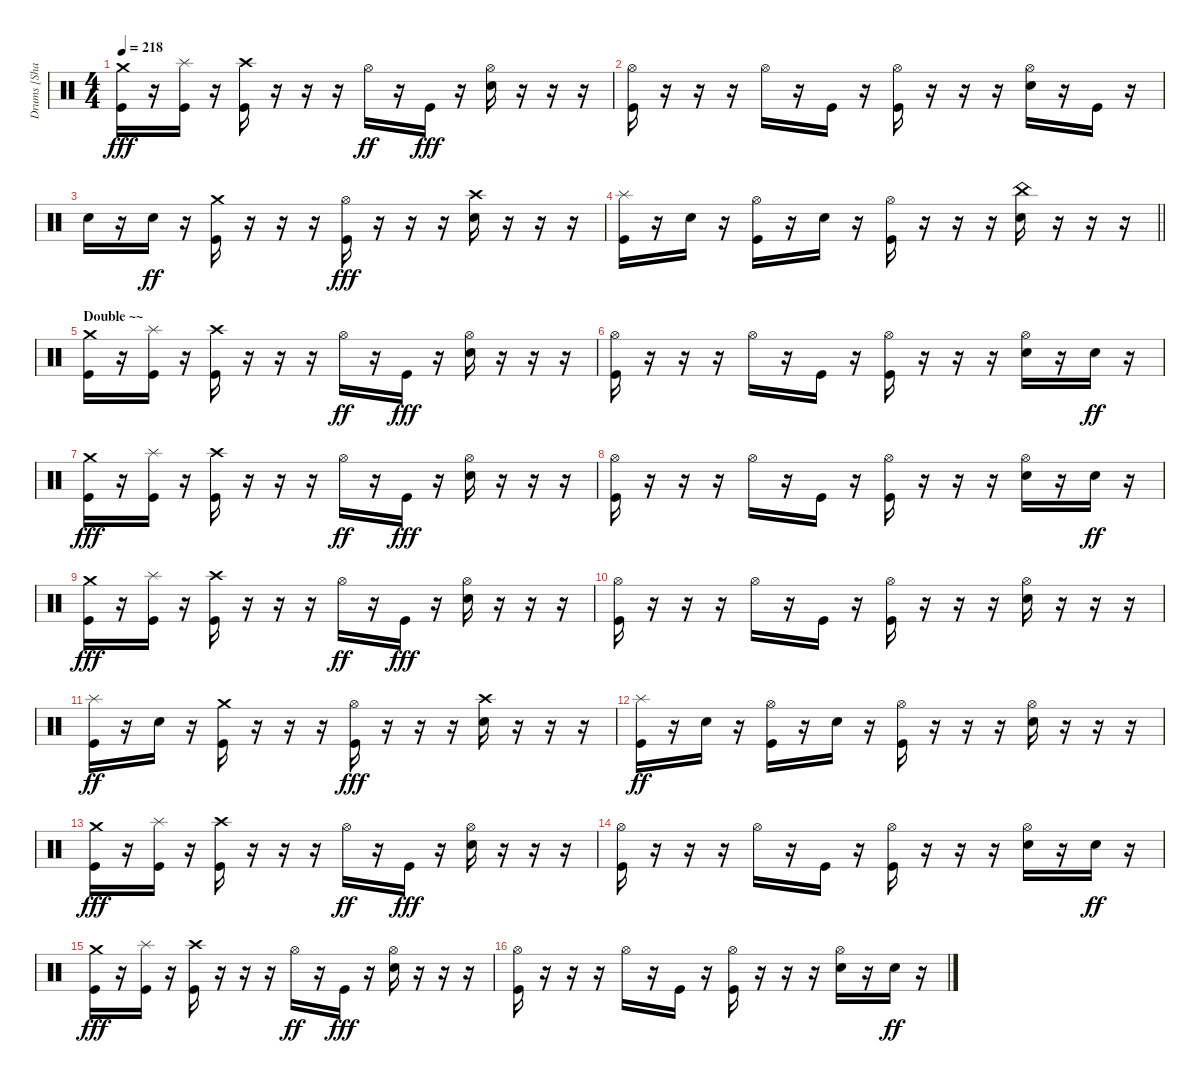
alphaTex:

\track ("Drums [Shannon Larkin]" "Drums [Sha") {instrument percussion}
\staff {score}
\articulation defaults
\ts (4 4)
\tempo 218
\clef neutral
\ks c
("Crash medium (hit)" "Kick (hit)").16{dy fff} r.16 ("Splash (hit)" "Kick (hit)").16 r.16 ("Crash high (hit)" "Kick (hit)").16 r.16 r.16 r.16 "Hi-Hat (open)".16{dy ff} r.16 "Kick (hit)".16{dy fff} r.16 ("Hi-Hat (open)" "Electric Snare (hit)").16 r.16 r.16 r.16 |
("Hi-Hat (open)" "Kick (hit)").16 r.16 r.16 r.16 "Hi-Hat (open)".16 r.16 "Kick (hit)".16 r.16 ("Hi-Hat (open)" "Kick (hit)").16 r.16 r.16 r.16 ("Hi-Hat (open)" "Electric Snare (hit)").16 r.16 "Kick (hit)".16 r.16 |
"Electric Snare (hit)".16 r.16 "Electric Snare (hit)".16{dy ff} r.16 ("Crash medium (hit)" "Kick (hit)").16 r.16 r.16 r.16 ("Hi-Hat (open)" "Kick (hit)").16{dy fff} r.16 r.16 r.16 ("Crash high (hit)" "Electric Snare (hit)").16 r.16 r.16 r.16 |
\barLineRight lightlight
("Splash (hit)" "Kick (hit)").16 r.16 "Electric Snare (hit)".16 r.16 ("Hi-Hat (open)" "Kick (hit)").16 r.16 "Electric Snare (hit)".16 r.16 ("Hi-Hat (open)" "Kick (hit)").16 r.16 r.16 r.16 ("China (hit)" "Electric Snare (hit)").16 r.16 r.16 r.16 |
\section ("" "Double ~~")
("Crash medium (hit)" "Kick (hit)").16 r.16 ("Splash (hit)" "Kick (hit)").16 r.16 ("Crash high (hit)" "Kick (hit)").16 r.16 r.16 r.16 "Hi-Hat (open)".16{dy ff} r.16 "Kick (hit)".16{dy fff} r.16 ("Hi-Hat (open)" "Electric Snare (hit)").16 r.16 r.16 r.16 |
("Hi-Hat (open)" "Kick (hit)").16 r.16 r.16 r.16 "Hi-Hat (open)".16 r.16 "Kick (hit)".16 r.16 ("Hi-Hat (open)" "Kick (hit)").16 r.16 r.16 r.16 ("Hi-Hat (open)" "Electric Snare (hit)").16 r.16 "Electric Snare (hit)".16{dy ff} r.16 |
("Crash medium (hit)" "Kick (hit)").16{dy fff} r.16 ("Splash (hit)" "Kick (hit)").16 r.16 ("Crash high (hit)" "Kick (hit)").16 r.16 r.16 r.16 "Hi-Hat (open)".16{dy ff} r.16 "Kick (hit)".16{dy fff} r.16 ("Hi-Hat (open)" "Electric Snare (hit)").16 r.16 r.16 r.16 |
("Hi-Hat (open)" "Kick (hit)").16 r.16 r.16 r.16 "Hi-Hat (open)".16 r.16 "Kick (hit)".16 r.16 ("Hi-Hat (open)" "Kick (hit)").16 r.16 r.16 r.16 ("Hi-Hat (open)" "Electric Snare (hit)").16 r.16 "Electric Snare (hit)".16{dy ff} r.16 |
("Crash medium (hit)" "Kick (hit)").16{dy fff} r.16 ("Splash (hit)" "Kick (hit)").16 r.16 ("Crash high (hit)" "Kick (hit)").16 r.16 r.16 r.16 "Hi-Hat (open)".16{dy ff} r.16 "Kick (hit)".16{dy fff} r.16 ("Hi-Hat (open)" "Electric Snare (hit)").16 r.16 r.16 r.16 |
("Hi-Hat (open)" "Kick (hit)").16 r.16 r.16 r.16 "Hi-Hat (open)".16 r.16 "Kick (hit)".16 r.16 ("Hi-Hat (open)" "Kick (hit)").16 r.16 r.16 r.16 ("Hi-Hat (open)" "Electric Snare (hit)").16 r.16 r.16 r.16 |
("Splash (hit)" "Kick (hit)").16{dy ff} r.16 "Electric Snare (hit)".16 r.16 ("Crash medium (hit)" "Kick (hit)").16 r.16 r.16 r.16 ("Hi-Hat (open)" "Kick (hit)").16{dy fff} r.16 r.16 r.16 ("Crash high (hit)" "Electric Snare (hit)").16 r.16 r.16 r.16 |
("Splash (hit)" "Kick (hit)").16{dy ff} r.16 "Electric Snare (hit)".16 r.16 ("Hi-Hat (open)" "Kick (hit)").16 r.16 "Electric Snare (hit)".16 r.16 ("Hi-Hat (open)" "Kick (hit)").16 r.16 r.16 r.16 ("Hi-Hat (open)" "Electric Snare (hit)").16 r.16 r.16 r.16 |
("Crash medium (hit)" "Kick (hit)").16{dy fff} r.16 ("Splash (hit)" "Kick (hit)").16 r.16 ("Crash high (hit)" "Kick (hit)").16 r.16 r.16 r.16 "Hi-Hat (open)".16{dy ff} r.16 "Kick (hit)".16{dy fff} r.16 ("Hi-Hat (open)" "Electric Snare (hit)").16 r.16 r.16 r.16 |
("Hi-Hat (open)" "Kick (hit)").16 r.16 r.16 r.16 "Hi-Hat (open)".16 r.16 "Kick (hit)".16 r.16 ("Hi-Hat (open)" "Kick (hit)").16 r.16 r.16 r.16 ("Hi-Hat (open)" "Electric Snare (hit)").16 r.16 "Electric Snare (hit)".16{dy ff} r.16 |
("Crash medium (hit)" "Kick (hit)").16{dy fff} r.16 ("Splash (hit)" "Kick (hit)").16 r.16 ("Crash high (hit)" "Kick (hit)").16 r.16 r.16 r.16 "Hi-Hat (open)".16{dy ff} r.16 "Kick (hit)".16{dy fff} r.16 ("Hi-Hat (open)" "Electric Snare (hit)").16 r.16 r.16 r.16 |
("Hi-Hat (open)" "Kick (hit)").16 r.16 r.16 r.16 "Hi-Hat (open)".16 r.16 "Kick (hit)".16 r.16 ("Hi-Hat (open)" "Kick (hit)").16 r.16 r.16 r.16 ("Hi-Hat (open)" "Electric Snare (hit)").16 r.16 "Electric Snare (hit)".16{dy ff} r.16
